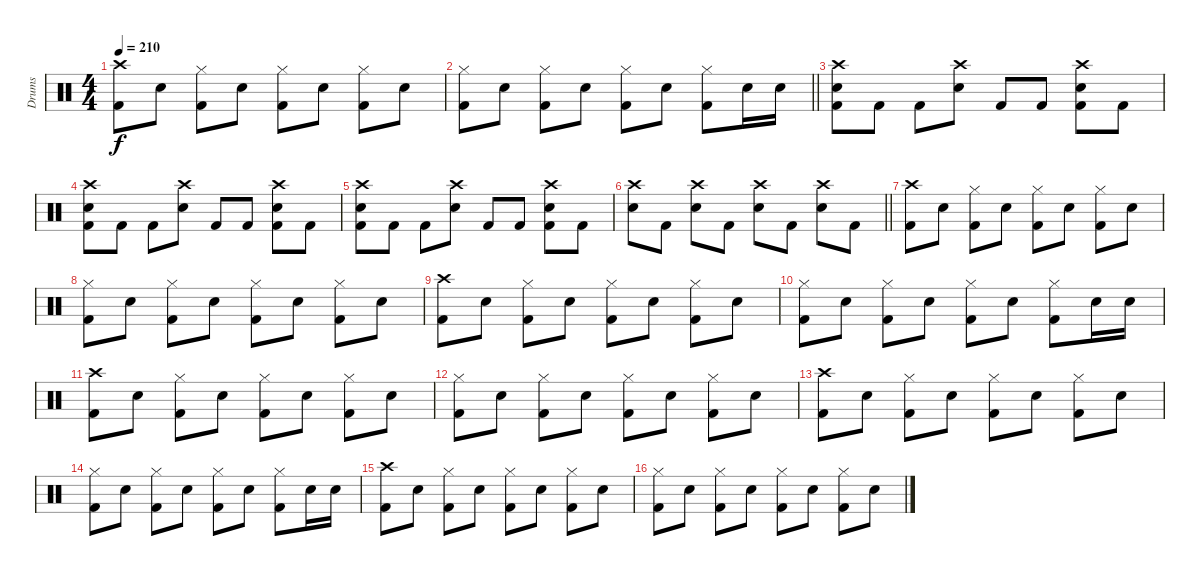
\track ("Drums" "Drums") {instrument percussion}
\staff {score}
\articulation defaults
\ts (4 4)
\tempo 210
\clef neutral
\ks c
("Crash high (hit)" "Kick (hit) 2").8{dy f} "Snare (hit) 2".8 ("Hi-Hat (closed)" "Kick (hit) 2").8 "Snare (hit) 2".8 ("Hi-Hat (closed)" "Kick (hit) 2").8 "Snare (hit) 2".8 ("Hi-Hat (closed)" "Kick (hit) 2").8 "Snare (hit) 2".8 |
\barLineRight lightlight
("Hi-Hat (closed)" "Kick (hit) 2").8 "Snare (hit) 2".8 ("Hi-Hat (closed)" "Kick (hit) 2").8 "Snare (hit) 2".8 ("Hi-Hat (closed)" "Kick (hit) 2").8 "Snare (hit) 2".8 ("Hi-Hat (closed)" "Kick (hit) 2").8 "Snare (hit) 2".16 "Snare (hit) 2".16 |
\section ("" "")
("Crash high (hit)" "Snare (hit) 2" "Kick (hit) 2").8 "Kick (hit) 2".8 "Kick (hit) 2".8 ("Crash high (hit)" "Snare (hit) 2").8 "Kick (hit) 2".8 "Kick (hit) 2".8 ("Crash high (hit)" "Snare (hit) 2" "Kick (hit) 2").8 "Kick (hit) 2".8 |
("Crash high (hit)" "Snare (hit) 2" "Kick (hit) 2").8 "Kick (hit) 2".8 "Kick (hit) 2".8 ("Crash high (hit)" "Snare (hit) 2").8 "Kick (hit) 2".8 "Kick (hit) 2".8 ("Crash high (hit)" "Snare (hit) 2" "Kick (hit) 2").8 "Kick (hit) 2".8 |
("Crash high (hit)" "Snare (hit) 2" "Kick (hit) 2").8 "Kick (hit) 2".8 "Kick (hit) 2".8 ("Crash high (hit)" "Snare (hit) 2").8 "Kick (hit) 2".8 "Kick (hit) 2".8 ("Crash high (hit)" "Snare (hit) 2" "Kick (hit) 2").8 "Kick (hit) 2".8 |
\barLineRight lightlight
("Crash high (hit)" "Snare (hit) 2").8 "Kick (hit) 2".8 ("Crash high (hit)" "Snare (hit) 2").8 "Kick (hit) 2".8 ("Crash high (hit)" "Snare (hit) 2").8 "Kick (hit) 2".8 ("Crash high (hit)" "Snare (hit) 2").8 "Kick (hit) 2".8 |
\section ("" "")
("Crash high (hit)" "Kick (hit) 2").8 "Snare (hit) 2".8 ("Hi-Hat (closed)" "Kick (hit) 2").8 "Snare (hit) 2".8 ("Hi-Hat (closed)" "Kick (hit) 2").8 "Snare (hit) 2".8 ("Hi-Hat (closed)" "Kick (hit) 2").8 "Snare (hit) 2".8 |
("Hi-Hat (closed)" "Kick (hit) 2").8 "Snare (hit) 2".8 ("Hi-Hat (closed)" "Kick (hit) 2").8 "Snare (hit) 2".8 ("Hi-Hat (closed)" "Kick (hit) 2").8 "Snare (hit) 2".8 ("Hi-Hat (closed)" "Kick (hit) 2").8 "Snare (hit) 2".8 |
("Crash high (hit)" "Kick (hit) 2").8 "Snare (hit) 2".8 ("Hi-Hat (closed)" "Kick (hit) 2").8 "Snare (hit) 2".8 ("Hi-Hat (closed)" "Kick (hit) 2").8 "Snare (hit) 2".8 ("Hi-Hat (closed)" "Kick (hit) 2").8 "Snare (hit) 2".8 |
("Hi-Hat (closed)" "Kick (hit) 2").8 "Snare (hit) 2".8 ("Hi-Hat (closed)" "Kick (hit) 2").8 "Snare (hit) 2".8 ("Hi-Hat (closed)" "Kick (hit) 2").8 "Snare (hit) 2".8 ("Hi-Hat (closed)" "Kick (hit) 2").8 "Snare (hit) 2".16 "Snare (hit) 2".16 |
("Crash high (hit)" "Kick (hit) 2").8 "Snare (hit) 2".8 ("Hi-Hat (closed)" "Kick (hit) 2").8 "Snare (hit) 2".8 ("Hi-Hat (closed)" "Kick (hit) 2").8 "Snare (hit) 2".8 ("Hi-Hat (closed)" "Kick (hit) 2").8 "Snare (hit) 2".8 |
("Hi-Hat (closed)" "Kick (hit) 2").8 "Snare (hit) 2".8 ("Hi-Hat (closed)" "Kick (hit) 2").8 "Snare (hit) 2".8 ("Hi-Hat (closed)" "Kick (hit) 2").8 "Snare (hit) 2".8 ("Hi-Hat (closed)" "Kick (hit) 2").8 "Snare (hit) 2".8 |
("Crash high (hit)" "Kick (hit) 2").8 "Snare (hit) 2".8 ("Hi-Hat (closed)" "Kick (hit) 2").8 "Snare (hit) 2".8 ("Hi-Hat (closed)" "Kick (hit) 2").8 "Snare (hit) 2".8 ("Hi-Hat (closed)" "Kick (hit) 2").8 "Snare (hit) 2".8 |
("Hi-Hat (closed)" "Kick (hit) 2").8 "Snare (hit) 2".8 ("Hi-Hat (closed)" "Kick (hit) 2").8 "Snare (hit) 2".8 ("Hi-Hat (closed)" "Kick (hit) 2").8 "Snare (hit) 2".8 ("Hi-Hat (closed)" "Kick (hit) 2").8 "Snare (hit) 2".16 "Snare (hit) 2".16 |
("Crash high (hit)" "Kick (hit) 2").8 "Snare (hit) 2".8 ("Hi-Hat (closed)" "Kick (hit) 2").8 "Snare (hit) 2".8 ("Hi-Hat (closed)" "Kick (hit) 2").8 "Snare (hit) 2".8 ("Hi-Hat (closed)" "Kick (hit) 2").8 "Snare (hit) 2".8 |
("Hi-Hat (closed)" "Kick (hit) 2").8 "Snare (hit) 2".8 ("Hi-Hat (closed)" "Kick (hit) 2").8 "Snare (hit) 2".8 ("Hi-Hat (closed)" "Kick (hit) 2").8 "Snare (hit) 2".8 ("Hi-Hat (closed)" "Kick (hit) 2").8 "Snare (hit) 2".8
